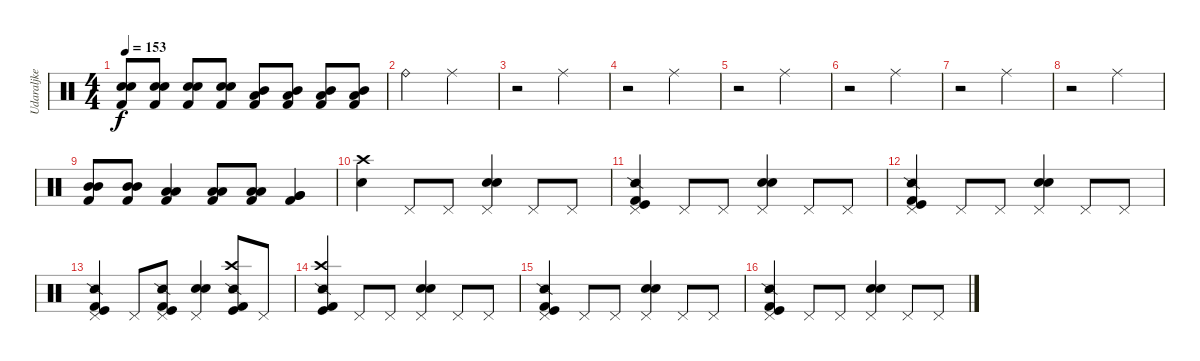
\track ("Udaraljke" "Udaraljke") {instrument percussion}
\staff {score}
\articulation defaults
\ts (4 4)
\tempo 153
\clef neutral
\ks c
("Electric Snare (hit)" "Snare (hit) 2" "Kick (hit) 2").8{dy f} ("Electric Snare (hit)" "Snare (hit) 2" "Kick (hit) 2").8 ("Electric Snare (hit)" "Snare (hit) 2" "Kick (hit) 2").8 ("Electric Snare (hit)" "Snare (hit) 2" "Kick (hit) 2").8 ("Mid Tom (hit)" "Low Tom (hit)" "Kick (hit) 2").8 ("Mid Tom (hit)" "Low Tom (hit)" "Kick (hit) 2").8 ("Mid Tom (hit)" "Low Tom (hit)" "Kick (hit) 2").8 ("Mid Tom (hit)" "Low Tom (hit)" "Kick (hit) 2").8 |
"Ride (bell)".2 "Ride (middle)".2 |
r.2 "Ride (middle)".2 |
r.2 "Ride (middle)".2 |
r.2 "Ride (middle)".2 |
r.2 "Ride (middle)".2 |
r.2 "Ride (middle)".2 |
r.2 "Ride (middle)".2 |
("Mid Tom (hit)" "Mid Tom (hit)" "Kick (hit) 2").8 ("Mid Tom (hit)" "Mid Tom (hit)" "Kick (hit) 2").8 ("Low Tom (hit)" "Low Tom (hit)" "Kick (hit) 2").4 ("Low Tom (hit)" "Low Tom (hit)" "Kick (hit) 2").8 ("Low Tom (hit)" "Low Tom (hit)" "Kick (hit) 2").8 ("Very Low Tom (hit)" "Very Low Tom (hit)" "Kick (hit) 2").4 |
("Crash high (hit)" "Snare (hit) 2").4 "Pedal Hi-Hat (hit)".8 "Pedal Hi-Hat (hit)".8 ("Pedal Hi-Hat (hit)" "Electric Snare (hit)" "Snare (hit) 2").4 "Pedal Hi-Hat (hit)".8 "Pedal Hi-Hat (hit)".8 |
("Pedal Hi-Hat (hit)" "Kick (hit) 2" "Kick (hit)" "Snare (side stick) 2").4 "Pedal Hi-Hat (hit)".8 "Pedal Hi-Hat (hit)".8 ("Pedal Hi-Hat (hit)" "Electric Snare (hit)" "Snare (hit) 2").4 "Pedal Hi-Hat (hit)".8 "Pedal Hi-Hat (hit)".8 |
("Pedal Hi-Hat (hit)" "Kick (hit) 2" "Kick (hit)" "Snare (side stick) 2").4 "Pedal Hi-Hat (hit)".8 "Pedal Hi-Hat (hit)".8 ("Pedal Hi-Hat (hit)" "Electric Snare (hit)" "Snare (hit) 2").4 "Pedal Hi-Hat (hit)".8 "Pedal Hi-Hat (hit)".8 |
("Pedal Hi-Hat (hit)" "Kick (hit) 2" "Kick (hit)" "Snare (side stick) 2").4 "Pedal Hi-Hat (hit)".8 ("Pedal Hi-Hat (hit)" "Kick (hit) 2" "Kick (hit)" "Snare (side stick) 2").8 ("Pedal Hi-Hat (hit)" "Electric Snare (hit)" "Snare (hit) 2").4 ("Crash high (hit)" "Kick (hit) 2" "Kick (hit)" "Snare (side stick) 2").8 "Pedal Hi-Hat (hit)".8 |
("Crash high (hit)" "Kick (hit) 2" "Kick (hit)" "Snare (side stick) 2").4 "Pedal Hi-Hat (hit)".8 "Pedal Hi-Hat (hit)".8 ("Pedal Hi-Hat (hit)" "Electric Snare (hit)" "Snare (hit) 2").4 "Pedal Hi-Hat (hit)".8 "Pedal Hi-Hat (hit)".8 |
("Pedal Hi-Hat (hit)" "Kick (hit) 2" "Kick (hit)" "Snare (side stick) 2").4 "Pedal Hi-Hat (hit)".8 "Pedal Hi-Hat (hit)".8 ("Pedal Hi-Hat (hit)" "Electric Snare (hit)" "Snare (hit) 2").4 "Pedal Hi-Hat (hit)".8 "Pedal Hi-Hat (hit)".8 |
("Pedal Hi-Hat (hit)" "Kick (hit) 2" "Kick (hit)" "Snare (side stick) 2").4 "Pedal Hi-Hat (hit)".8 "Pedal Hi-Hat (hit)".8 ("Pedal Hi-Hat (hit)" "Electric Snare (hit)" "Snare (hit) 2").4 "Pedal Hi-Hat (hit)".8 "Pedal Hi-Hat (hit)".8
